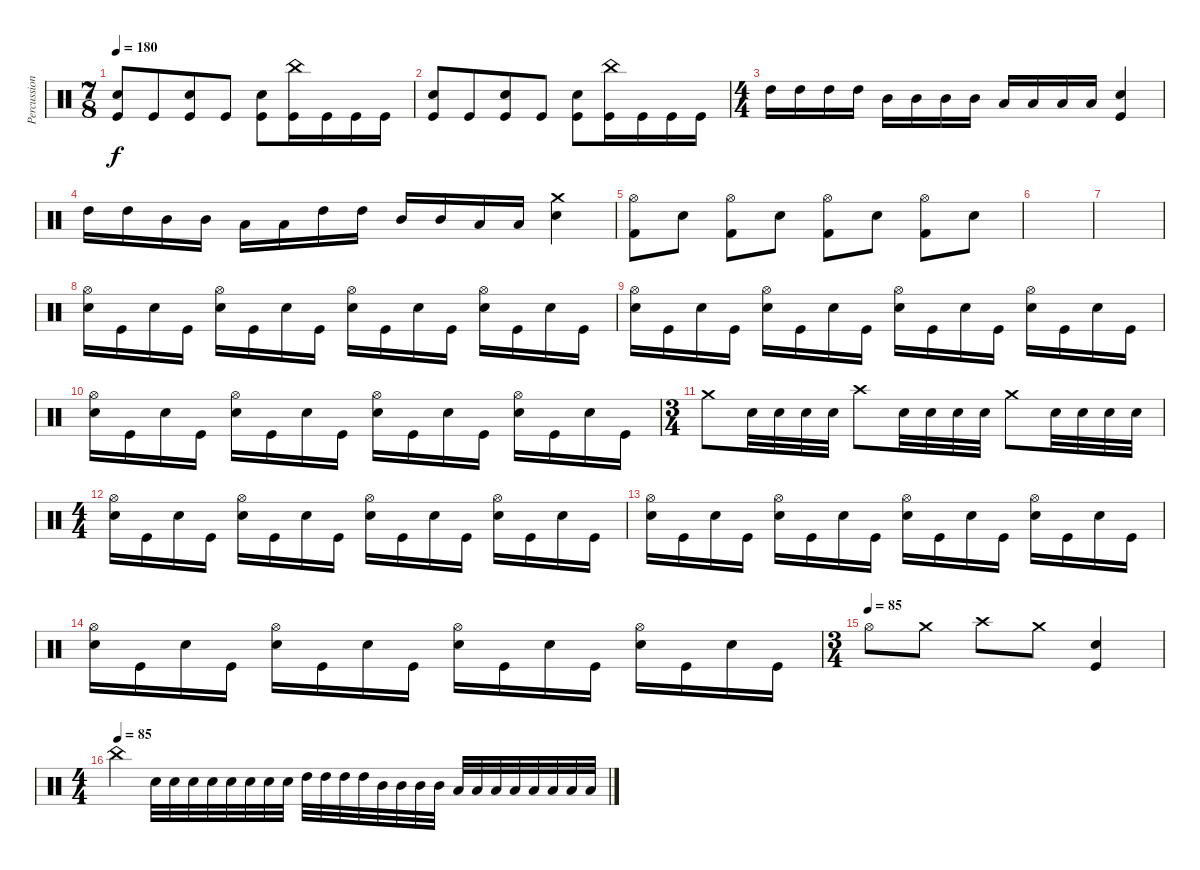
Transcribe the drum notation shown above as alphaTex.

\track ("Percussion" "Percussion") {instrument percussion}
\staff {score}
\articulation defaults
\ts (7 8)
\tempo 180
\clef neutral
\ks c
("Snare (hit) 2" "Kick (hit)").8{dy f} "Kick (hit)".8 ("Snare (hit) 2" "Kick (hit)").8 "Kick (hit)".8 ("Snare (hit) 2" "Kick (hit)").8 ("China (hit)" "Kick (hit)").16 "Kick (hit)".16 "Kick (hit)".16 "Kick (hit)".16 |
("Snare (hit) 2" "Kick (hit)").8 "Kick (hit)".8 ("Snare (hit) 2" "Kick (hit)").8 "Kick (hit)".8 ("Snare (hit) 2" "Kick (hit)").8 ("China (hit)" "Kick (hit)").16 "Kick (hit)".16 "Kick (hit)".16 "Kick (hit)".16 |
\ts (4 4)
"High Tom (hit)".16 "High Tom (hit)".16 "High Tom (hit)".16 "High Tom (hit)".16 "Mid Tom (hit)".16 "Mid Tom (hit)".16 "Mid Tom (hit)".16 "Mid Tom (hit)".16 "Low Tom (hit)".16 "Low Tom (hit)".16 "Low Tom (hit)".16 "Low Tom (hit)".16 ("Snare (hit) 2" "Kick (hit)").4{bd 240} |
"High Tom (hit)".16 "High Tom (hit)".16 "Mid Tom (hit)".16 "Mid Tom (hit)".16 "Low Tom (hit)".16 "Low Tom (hit)".16 "High Tom (hit)".16 "High Tom (hit)".16 "Mid Tom (hit)".16 "Mid Tom (hit)".16 "Low Tom (hit)".16 "Low Tom (hit)".16 ("Crash medium (hit)" "Snare (hit) 2").4 |
("Hi-Hat (open)" "Kick (hit) 2").8 "Snare (hit) 2".8 ("Hi-Hat (open)" "Kick (hit) 2").8 "Snare (hit) 2".8 ("Hi-Hat (open)" "Kick (hit) 2").8 "Snare (hit) 2".8 ("Hi-Hat (open)" "Kick (hit) 2").8 "Snare (hit) 2".8 |
|
|
("Hi-Hat (open)" "Snare (hit) 2").16 "Kick (hit)".16 "Snare (hit) 2".16 "Kick (hit)".16 ("Hi-Hat (open)" "Snare (hit) 2").16 "Kick (hit)".16 "Snare (hit) 2".16 "Kick (hit)".16 ("Hi-Hat (open)" "Snare (hit) 2").16 "Kick (hit)".16 "Snare (hit) 2".16 "Kick (hit)".16 ("Hi-Hat (open)" "Snare (hit) 2").16 "Kick (hit)".16 "Snare (hit) 2".16 "Kick (hit)".16 |
("Hi-Hat (open)" "Snare (hit) 2").16 "Kick (hit)".16 "Snare (hit) 2".16 "Kick (hit)".16 ("Hi-Hat (open)" "Snare (hit) 2").16 "Kick (hit)".16 "Snare (hit) 2".16 "Kick (hit)".16 ("Hi-Hat (open)" "Snare (hit) 2").16 "Kick (hit)".16 "Snare (hit) 2".16 "Kick (hit)".16 ("Hi-Hat (open)" "Snare (hit) 2").16 "Kick (hit)".16 "Snare (hit) 2".16 "Kick (hit)".16 |
("Hi-Hat (open)" "Snare (hit) 2").16 "Kick (hit)".16 "Snare (hit) 2".16 "Kick (hit)".16 ("Hi-Hat (open)" "Snare (hit) 2").16 "Kick (hit)".16 "Snare (hit) 2".16 "Kick (hit)".16 ("Hi-Hat (open)" "Snare (hit) 2").16 "Kick (hit)".16 "Snare (hit) 2".16 "Kick (hit)".16 ("Hi-Hat (open)" "Snare (hit) 2").16 "Kick (hit)".16 "Snare (hit) 2".16 "Kick (hit)".16 |
\ts (3 4)
"Crash medium (hit)".8 "Snare (hit) 2".32 "Snare (hit) 2".32 "Snare (hit) 2".32 "Snare (hit) 2".32 "Crash high (hit)".8 "Snare (hit) 2".32 "Snare (hit) 2".32 "Snare (hit) 2".32 "Snare (hit) 2".32 "Crash medium (hit)".8 "Snare (hit) 2".32 "Snare (hit) 2".32 "Snare (hit) 2".32 "Snare (hit) 2".32 |
\ts (4 4)
("Hi-Hat (open)" "Snare (hit) 2").16 "Kick (hit)".16 "Snare (hit) 2".16 "Kick (hit)".16 ("Hi-Hat (open)" "Snare (hit) 2").16 "Kick (hit)".16 "Snare (hit) 2".16 "Kick (hit)".16 ("Hi-Hat (open)" "Snare (hit) 2").16 "Kick (hit)".16 "Snare (hit) 2".16 "Kick (hit)".16 ("Hi-Hat (open)" "Snare (hit) 2").16 "Kick (hit)".16 "Snare (hit) 2".16 "Kick (hit)".16 |
("Hi-Hat (open)" "Snare (hit) 2").16 "Kick (hit)".16 "Snare (hit) 2".16 "Kick (hit)".16 ("Hi-Hat (open)" "Snare (hit) 2").16 "Kick (hit)".16 "Snare (hit) 2".16 "Kick (hit)".16 ("Hi-Hat (open)" "Snare (hit) 2").16 "Kick (hit)".16 "Snare (hit) 2".16 "Kick (hit)".16 ("Hi-Hat (open)" "Snare (hit) 2").16 "Kick (hit)".16 "Snare (hit) 2".16 "Kick (hit)".16 |
("Hi-Hat (open)" "Snare (hit) 2").16 "Kick (hit)".16 "Snare (hit) 2".16 "Kick (hit)".16 ("Hi-Hat (open)" "Snare (hit) 2").16 "Kick (hit)".16 "Snare (hit) 2".16 "Kick (hit)".16 ("Hi-Hat (open)" "Snare (hit) 2").16 "Kick (hit)".16 "Snare (hit) 2".16 "Kick (hit)".16 ("Hi-Hat (open)" "Snare (hit) 2").16 "Kick (hit)".16 "Snare (hit) 2".16 "Kick (hit)".16 |
\ts (3 4)
\tempo (85)
"Hi-Hat (open)".8 "Crash medium (hit)".8 "Crash high (hit)".8 "Crash medium (hit)".8 ("Snare (hit) 2" "Kick (hit)").4 |
\ts (4 4)
\tempo (85)
"China (hit)".4 "Snare (hit) 2".32 "Snare (hit) 2".32 "Snare (hit) 2".32 "Snare (hit) 2".32 "Snare (hit) 2".32 "Snare (hit) 2".32 "Snare (hit) 2".32 "Snare (hit) 2".32 "High Tom (hit)".32 "High Tom (hit)".32 "High Tom (hit)".32 "High Tom (hit)".32 "Mid Tom (hit)".32 "Mid Tom (hit)".32 "Mid Tom (hit)".32 "Mid Tom (hit)".32 "Low Tom (hit)".32 "Low Tom (hit)".32 "Low Tom (hit)".32 "Low Tom (hit)".32 "Low Floor Tom (hit)".32 "Low Floor Tom (hit)".32 "Low Floor Tom (hit)".32 "Low Floor Tom (hit)".32
